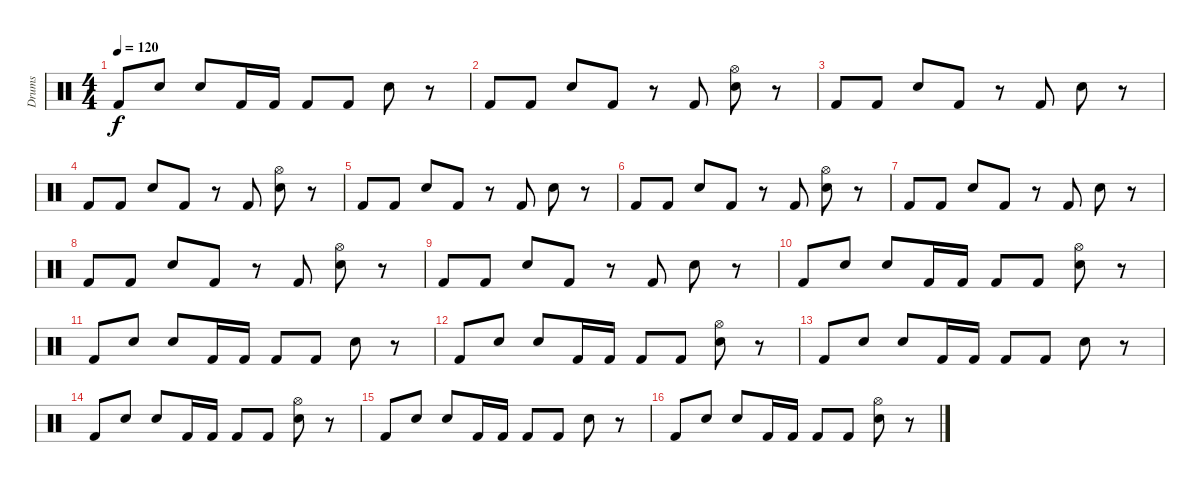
\track ("Drums" "Drums") {instrument percussion}
\staff {score}
\articulation defaults
\ts (4 4)
\tempo 120
\clef neutral
\ks c "Kick (hit) 2".8{dy f} "Snare (hit) 2".8 "Snare (hit) 2".8 "Kick (hit) 2".16 "Kick (hit) 2".16 "Kick (hit) 2".8 "Kick (hit) 2".8 "Snare (hit) 2".8
r.8 |
"Kick (hit) 2".8 "Kick (hit) 2".8 "Snare (hit) 2".8 "Kick (hit) 2".8 r.8 "Kick (hit) 2".8 ("Snare (hit) 2" "Hi-Hat (open)").8 r.8 |
"Kick (hit) 2".8 "Kick (hit) 2".8 "Snare (hit) 2".8 "Kick (hit) 2".8 r.8 "Kick (hit) 2".8 "Snare (hit) 2".8 r.8 |
"Kick (hit) 2".8 "Kick (hit) 2".8 "Snare (hit) 2".8 "Kick (hit) 2".8 r.8 "Kick (hit) 2".8 ("Snare (hit) 2" "Hi-Hat (open)").8 r.8 |
"Kick (hit) 2".8 "Kick (hit) 2".8 "Snare (hit) 2".8 "Kick (hit) 2".8 r.8 "Kick (hit) 2".8 "Snare (hit) 2".8 r.8 |
"Kick (hit) 2".8 "Kick (hit) 2".8 "Snare (hit) 2".8 "Kick (hit) 2".8 r.8 "Kick (hit) 2".8 ("Snare (hit) 2" "Hi-Hat (open)").8 r.8 |
"Kick (hit) 2".8 "Kick (hit) 2".8 "Snare (hit) 2".8 "Kick (hit) 2".8 r.8 "Kick (hit) 2".8 "Snare (hit) 2".8 r.8 |
"Kick (hit) 2".8 "Kick (hit) 2".8 "Snare (hit) 2".8 "Kick (hit) 2".8 r.8 "Kick (hit) 2".8 ("Snare (hit) 2" "Hi-Hat (open)").8 r.8 |
"Kick (hit) 2".8 "Kick (hit) 2".8 "Snare (hit) 2".8 "Kick (hit) 2".8 r.8 "Kick (hit) 2".8 "Snare (hit) 2".8 r.8 |
"Kick (hit) 2".8 "Snare (hit) 2".8 "Snare (hit) 2".8 "Kick (hit) 2".16 "Kick (hit) 2".16 "Kick (hit) 2".8 "Kick (hit) 2".8 ("Snare (hit) 2" "Hi-Hat (open)").8 r.8 |
"Kick (hit) 2".8 "Snare (hit) 2".8 "Snare (hit) 2".8 "Kick (hit) 2".16 "Kick (hit) 2".16 "Kick (hit) 2".8 "Kick (hit) 2".8 "Snare (hit) 2".8 r.8 |
"Kick (hit) 2".8 "Snare (hit) 2".8 "Snare (hit) 2".8 "Kick (hit) 2".16 "Kick (hit) 2".16 "Kick (hit) 2".8 "Kick (hit) 2".8 ("Snare (hit) 2" "Hi-Hat (open)").8 r.8 |
"Kick (hit) 2".8 "Snare (hit) 2".8 "Snare (hit) 2".8 "Kick (hit) 2".16 "Kick (hit) 2".16 "Kick (hit) 2".8 "Kick (hit) 2".8 "Snare (hit) 2".8 r.8 |
"Kick (hit) 2".8 "Snare (hit) 2".8 "Snare (hit) 2".8 "Kick (hit) 2".16 "Kick (hit) 2".16 "Kick (hit) 2".8 "Kick (hit) 2".8 ("Snare (hit) 2" "Hi-Hat (open)").8 r.8 |
"Kick (hit) 2".8 "Snare (hit) 2".8 "Snare (hit) 2".8 "Kick (hit) 2".16 "Kick (hit) 2".16 "Kick (hit) 2".8 "Kick (hit) 2".8 "Snare (hit) 2".8 r.8 |
"Kick (hit) 2".8 "Snare (hit) 2".8 "Snare (hit) 2".8 "Kick (hit) 2".16 "Kick (hit) 2".16 "Kick (hit) 2".8 "Kick (hit) 2".8 ("Snare (hit) 2" "Hi-Hat (open)").8 r.8
